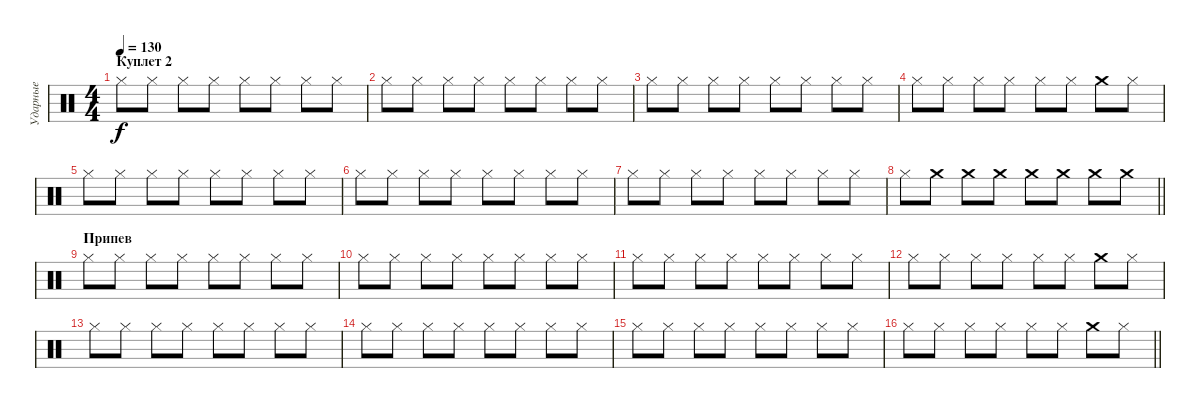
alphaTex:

\track ("Ударные" "Ударные") {instrument percussion}
\staff {score}
\articulation defaults
\ts (4 4)
\section ("" "Куплет 2")
\tempo 130
\clef neutral
\ks c "Hi-Hat (closed)".8{dy f} "Hi-Hat (closed)".8 "Hi-Hat (closed)".8 "Hi-Hat (closed)".8 "Hi-Hat (closed)".8 "Hi-Hat (closed)".8 "Hi-Hat (closed)".8 "Hi-Hat (closed)".8
|
"Hi-Hat (closed)".8 "Hi-Hat (closed)".8 "Hi-Hat (closed)".8 "Hi-Hat (closed)".8 "Hi-Hat (closed)".8 "Hi-Hat (closed)".8 "Hi-Hat (closed)".8 "Hi-Hat (closed)".8 |
"Hi-Hat (closed)".8 "Hi-Hat (closed)".8 "Hi-Hat (closed)".8 "Hi-Hat (closed)".8 "Hi-Hat (closed)".8 "Hi-Hat (closed)".8 "Hi-Hat (closed)".8 "Hi-Hat (closed)".8 |
"Hi-Hat (closed)".8 "Hi-Hat (closed)".8 "Hi-Hat (closed)".8 "Hi-Hat (closed)".8 "Hi-Hat (closed)".8 "Hi-Hat (closed)".8 "Crash medium (hit)".8 "Hi-Hat (closed)".8 |
"Hi-Hat (closed)".8 "Hi-Hat (closed)".8 "Hi-Hat (closed)".8 "Hi-Hat (closed)".8 "Hi-Hat (closed)".8 "Hi-Hat (closed)".8 "Hi-Hat (closed)".8 "Hi-Hat (closed)".8 |
"Hi-Hat (closed)".8 "Hi-Hat (closed)".8 "Hi-Hat (closed)".8 "Hi-Hat (closed)".8 "Hi-Hat (closed)".8 "Hi-Hat (closed)".8 "Hi-Hat (closed)".8 "Hi-Hat (closed)".8 |
"Hi-Hat (closed)".8 "Hi-Hat (closed)".8 "Hi-Hat (closed)".8 "Hi-Hat (closed)".8 "Hi-Hat (closed)".8 "Hi-Hat (closed)".8 "Hi-Hat (closed)".8 "Hi-Hat (closed)".8 |
\barLineRight lightlight "Hi-Hat (closed)".8 "Crash medium (hit)".8 "Crash medium (hit)".8 "Crash medium (hit)".8 "Crash medium (hit)".8 "Crash medium (hit)".8 "Crash medium (hit)".8 "Crash medium (hit)".8
|
\section ("" "Припев")
"Hi-Hat (closed)".8 "Hi-Hat (closed)".8 "Hi-Hat (closed)".8 "Hi-Hat (closed)".8 "Hi-Hat (closed)".8 "Hi-Hat (closed)".8 "Hi-Hat (closed)".8 "Hi-Hat (closed)".8 |
"Hi-Hat (closed)".8 "Hi-Hat (closed)".8 "Hi-Hat (closed)".8 "Hi-Hat (closed)".8 "Hi-Hat (closed)".8 "Hi-Hat (closed)".8 "Hi-Hat (closed)".8 "Hi-Hat (closed)".8 |
"Hi-Hat (closed)".8 "Hi-Hat (closed)".8 "Hi-Hat (closed)".8 "Hi-Hat (closed)".8 "Hi-Hat (closed)".8 "Hi-Hat (closed)".8 "Hi-Hat (closed)".8 "Hi-Hat (closed)".8 |
"Hi-Hat (closed)".8 "Hi-Hat (closed)".8 "Hi-Hat (closed)".8 "Hi-Hat (closed)".8 "Hi-Hat (closed)".8 "Hi-Hat (closed)".8 "Crash medium (hit)".8 "Hi-Hat (closed)".8 |
"Hi-Hat (closed)".8 "Hi-Hat (closed)".8 "Hi-Hat (closed)".8 "Hi-Hat (closed)".8 "Hi-Hat (closed)".8 "Hi-Hat (closed)".8 "Hi-Hat (closed)".8 "Hi-Hat (closed)".8 |
"Hi-Hat (closed)".8 "Hi-Hat (closed)".8 "Hi-Hat (closed)".8 "Hi-Hat (closed)".8 "Hi-Hat (closed)".8 "Hi-Hat (closed)".8 "Hi-Hat (closed)".8 "Hi-Hat (closed)".8 |
"Hi-Hat (closed)".8 "Hi-Hat (closed)".8 "Hi-Hat (closed)".8 "Hi-Hat (closed)".8 "Hi-Hat (closed)".8 "Hi-Hat (closed)".8 "Hi-Hat (closed)".8 "Hi-Hat (closed)".8 |
\barLineRight lightlight "Hi-Hat (closed)".8 "Hi-Hat (closed)".8 "Hi-Hat (closed)".8 "Hi-Hat (closed)".8 "Hi-Hat (closed)".8 "Hi-Hat (closed)".8 "Crash medium (hit)".8 "Hi-Hat (closed)".8
